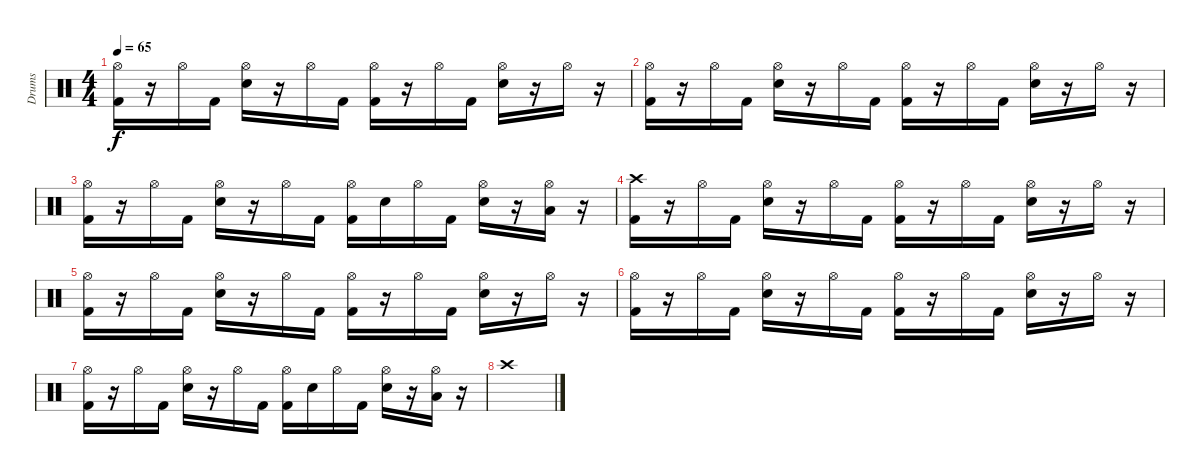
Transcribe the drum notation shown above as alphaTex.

\track ("Drums" "Drums") {instrument percussion}
\staff {score}
\articulation defaults
\ts (4 4)
\tempo 65
\clef neutral
\ks c
("Hi-Hat (open)" "Kick (hit) 2").16{dy f} r.16 "Hi-Hat (open)".16 "Kick (hit) 2".16 ("Hi-Hat (open)" "Snare (hit) 2").16 r.16 "Hi-Hat (open)".16 "Kick (hit) 2".16 ("Hi-Hat (open)" "Kick (hit) 2").16 r.16 "Hi-Hat (open)".16 "Kick (hit) 2".16 ("Hi-Hat (open)" "Snare (hit) 2").16 r.16 "Hi-Hat (open)".16 r.16 |
("Hi-Hat (open)" "Kick (hit) 2").16 r.16 "Hi-Hat (open)".16 "Kick (hit) 2".16 ("Hi-Hat (open)" "Snare (hit) 2").16 r.16 "Hi-Hat (open)".16 "Kick (hit) 2".16 ("Hi-Hat (open)" "Kick (hit) 2").16 r.16 "Hi-Hat (open)".16 "Kick (hit) 2".16 ("Hi-Hat (open)" "Snare (hit) 2").16 r.16 "Hi-Hat (open)".16 r.16 |
("Hi-Hat (open)" "Kick (hit) 2").16 r.16 "Hi-Hat (open)".16 "Kick (hit) 2".16 ("Hi-Hat (open)" "Snare (hit) 2").16 r.16 "Hi-Hat (open)".16 "Kick (hit) 2".16 ("Hi-Hat (open)" "Kick (hit) 2").16 "Snare (hit) 2".16 "Hi-Hat (open)".16 "Kick (hit) 2".16 ("Hi-Hat (open)" "Snare (hit) 2").16 r.16 ("Hi-Hat (open)" "Low Tom (hit)").16 r.16 |
("Crash high (hit)" "Kick (hit) 2").16 r.16 "Hi-Hat (open)".16 "Kick (hit) 2".16 ("Hi-Hat (open)" "Snare (hit) 2").16 r.16 "Hi-Hat (open)".16 "Kick (hit) 2".16 ("Hi-Hat (open)" "Kick (hit) 2").16 r.16 "Hi-Hat (open)".16 "Kick (hit) 2".16 ("Hi-Hat (open)" "Snare (hit) 2").16 r.16 "Hi-Hat (open)".16 r.16 |
("Hi-Hat (open)" "Kick (hit) 2").16 r.16 "Hi-Hat (open)".16 "Kick (hit) 2".16 ("Hi-Hat (open)" "Snare (hit) 2").16 r.16 "Hi-Hat (open)".16 "Kick (hit) 2".16 ("Hi-Hat (open)" "Kick (hit) 2").16 r.16 "Hi-Hat (open)".16 "Kick (hit) 2".16 ("Hi-Hat (open)" "Snare (hit) 2").16 r.16 "Hi-Hat (open)".16 r.16 |
("Hi-Hat (open)" "Kick (hit) 2").16 r.16 "Hi-Hat (open)".16 "Kick (hit) 2".16 ("Hi-Hat (open)" "Snare (hit) 2").16 r.16 "Hi-Hat (open)".16 "Kick (hit) 2".16 ("Hi-Hat (open)" "Kick (hit) 2").16 r.16 "Hi-Hat (open)".16 "Kick (hit) 2".16 ("Hi-Hat (open)" "Snare (hit) 2").16 r.16 "Hi-Hat (open)".16 r.16 |
("Hi-Hat (open)" "Kick (hit) 2").16 r.16 "Hi-Hat (open)".16 "Kick (hit) 2".16 ("Hi-Hat (open)" "Snare (hit) 2").16 r.16 "Hi-Hat (open)".16 "Kick (hit) 2".16 ("Hi-Hat (open)" "Kick (hit) 2").16 "Snare (hit) 2".16 "Hi-Hat (open)".16 "Kick (hit) 2".16 ("Hi-Hat (open)" "Snare (hit) 2").16 r.16 ("Hi-Hat (open)" "Low Tom (hit)").16 r.16 |
"Crash high (hit)".1
